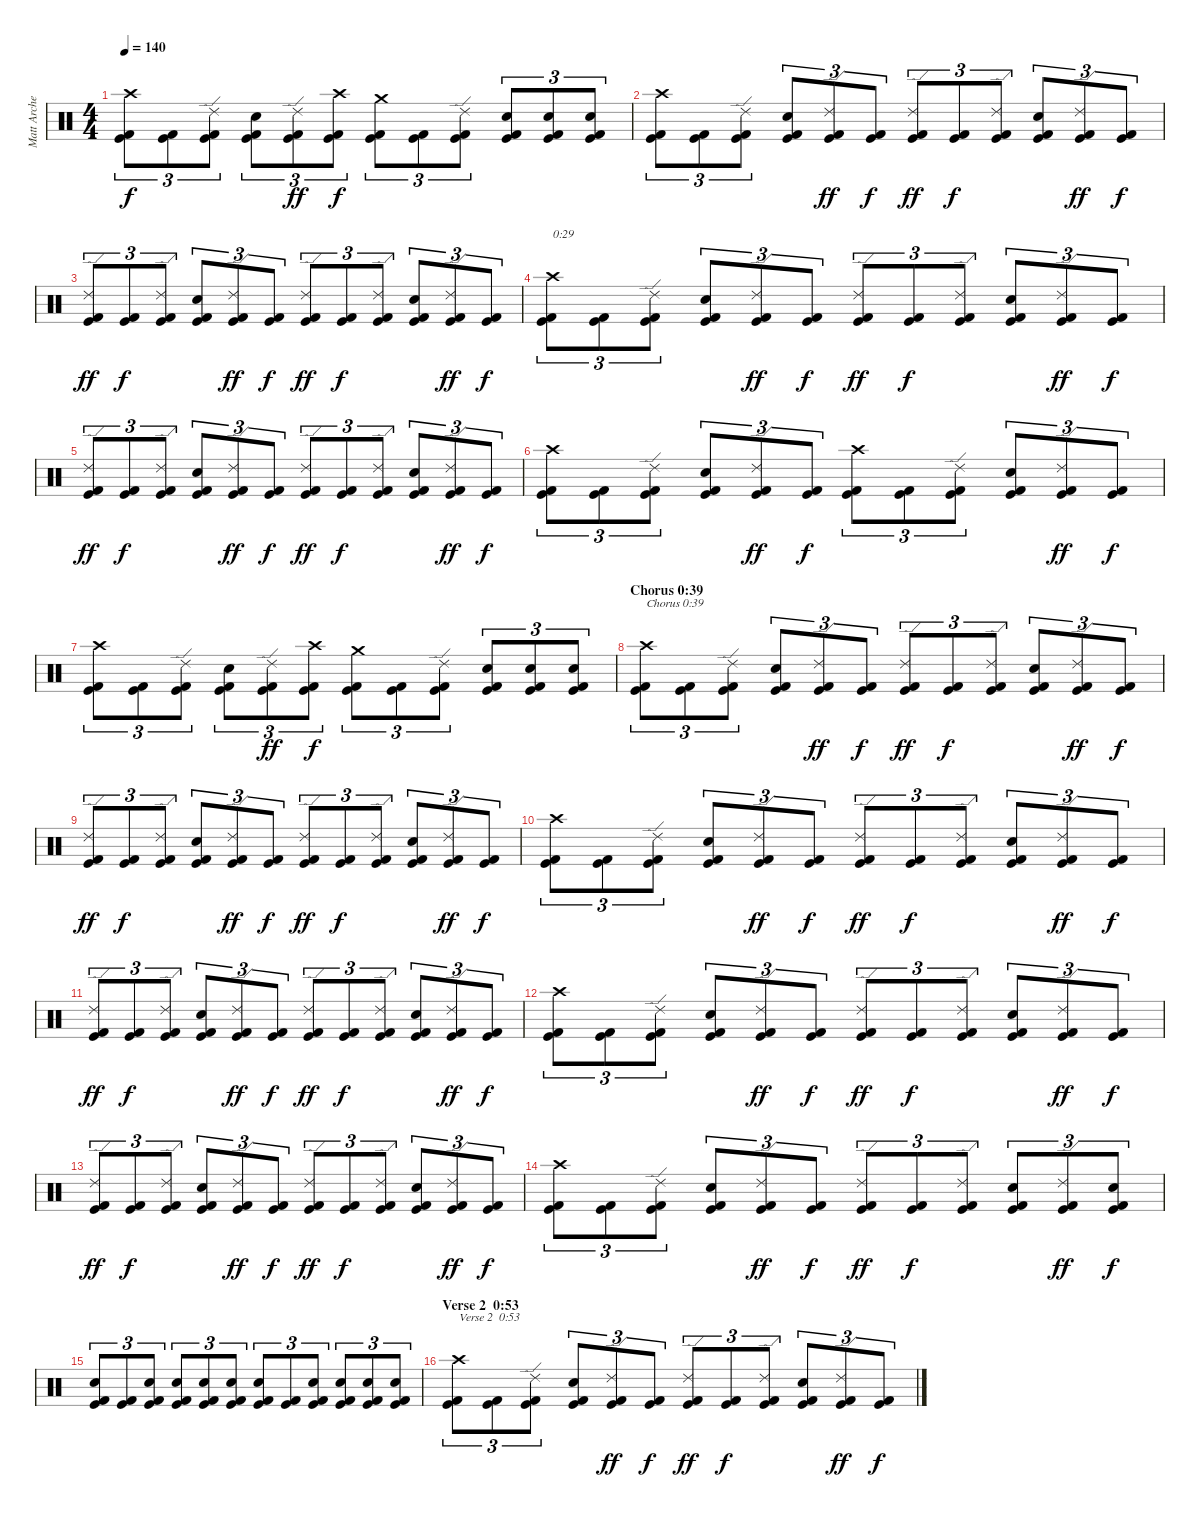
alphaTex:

\track ("Matt Archer" "Matt Arche") {instrument percussion}
\staff {score}
\articulation defaults
\ts (4 4)
\tempo 140
\clef neutral
\ks c
("Kick (hit)" "Kick (hit) 2" "Crash high (hit)").8{tu (3 2) dy f} ("Kick (hit)" "Kick (hit) 2").8{tu (3 2)} ("Kick (hit)" "Kick (hit) 2" "Ride (edge) 2").8{tu (3 2)} ("Kick (hit)" "Kick (hit) 2" "Electric Snare (hit)").8{tu (3 2)} ("Kick (hit)" "Kick (hit) 2" "Ride (edge) 2").8{tu (3 2) dy ff} ("Kick (hit)" "Kick (hit) 2" "Crash high (hit)").8{tu (3 2) dy f} ("Kick (hit)" "Kick (hit) 2" "Crash medium (hit)").8{tu (3 2)} ("Kick (hit)" "Kick (hit) 2").8{tu (3 2)} ("Kick (hit)" "Kick (hit) 2" "Ride (edge) 2").8{tu (3 2)} ("Kick (hit)" "Kick (hit) 2" "Electric Snare (hit)").8{tu (3 2)} ("Kick (hit)" "Kick (hit) 2" "Electric Snare (hit)").8{tu (3 2)} ("Kick (hit)" "Kick (hit) 2" "Electric Snare (hit)").8{tu (3 2)} |
("Kick (hit)" "Kick (hit) 2" "Crash high (hit)").8{tu (3 2)} ("Kick (hit)" "Kick (hit) 2").8{tu (3 2)} ("Kick (hit)" "Kick (hit) 2" "Ride (edge) 2").8{tu (3 2)} ("Kick (hit)" "Kick (hit) 2" "Electric Snare (hit)").8{tu (3 2)} ("Kick (hit)" "Kick (hit) 2" "Ride (edge) 2").8{tu (3 2) dy ff} ("Kick (hit)" "Kick (hit) 2").8{tu (3 2) dy f} ("Kick (hit)" "Kick (hit) 2" "Ride (edge) 2").8{tu (3 2) dy ff} ("Kick (hit)" "Kick (hit) 2").8{tu (3 2) dy f} ("Kick (hit)" "Kick (hit) 2" "Ride (edge) 2").8{tu (3 2)} ("Kick (hit)" "Kick (hit) 2" "Electric Snare (hit)").8{tu (3 2)} ("Kick (hit)" "Kick (hit) 2" "Ride (edge) 2").8{tu (3 2) dy ff} ("Kick (hit)" "Kick (hit) 2").8{tu (3 2) dy f} |
("Kick (hit)" "Kick (hit) 2" "Ride (edge) 2").8{tu (3 2) dy ff} ("Kick (hit)" "Kick (hit) 2").8{tu (3 2) dy f} ("Kick (hit)" "Kick (hit) 2" "Ride (edge) 2").8{tu (3 2)} ("Kick (hit)" "Kick (hit) 2" "Electric Snare (hit)").8{tu (3 2)} ("Kick (hit)" "Kick (hit) 2" "Ride (edge) 2").8{tu (3 2) dy ff} ("Kick (hit)" "Kick (hit) 2").8{tu (3 2) dy f} ("Kick (hit)" "Kick (hit) 2" "Ride (edge) 2").8{tu (3 2) dy ff} ("Kick (hit)" "Kick (hit) 2").8{tu (3 2) dy f} ("Kick (hit)" "Kick (hit) 2" "Ride (edge) 2").8{tu (3 2)} ("Kick (hit)" "Kick (hit) 2" "Electric Snare (hit)").8{tu (3 2)} ("Kick (hit)" "Kick (hit) 2" "Ride (edge) 2").8{tu (3 2) dy ff} ("Kick (hit)" "Kick (hit) 2").8{tu (3 2) dy f} |
("Kick (hit)" "Kick (hit) 2" "Crash high (hit)").8{tu (3 2) txt "0:29"} ("Kick (hit)" "Kick (hit) 2").8{tu (3 2)} ("Kick (hit)" "Kick (hit) 2" "Ride (edge) 2").8{tu (3 2)} ("Kick (hit)" "Kick (hit) 2" "Electric Snare (hit)").8{tu (3 2)} ("Kick (hit)" "Kick (hit) 2" "Ride (edge) 2").8{tu (3 2) dy ff} ("Kick (hit)" "Kick (hit) 2").8{tu (3 2) dy f} ("Kick (hit)" "Kick (hit) 2" "Ride (edge) 2").8{tu (3 2) dy ff} ("Kick (hit)" "Kick (hit) 2").8{tu (3 2) dy f} ("Kick (hit)" "Kick (hit) 2" "Ride (edge) 2").8{tu (3 2)} ("Kick (hit)" "Kick (hit) 2" "Electric Snare (hit)").8{tu (3 2)} ("Kick (hit)" "Kick (hit) 2" "Ride (edge) 2").8{tu (3 2) dy ff} ("Kick (hit)" "Kick (hit) 2").8{tu (3 2) dy f} |
("Kick (hit)" "Kick (hit) 2" "Ride (edge) 2").8{tu (3 2) dy ff} ("Kick (hit)" "Kick (hit) 2").8{tu (3 2) dy f} ("Kick (hit)" "Kick (hit) 2" "Ride (edge) 2").8{tu (3 2)} ("Kick (hit)" "Kick (hit) 2" "Electric Snare (hit)").8{tu (3 2)} ("Kick (hit)" "Kick (hit) 2" "Ride (edge) 2").8{tu (3 2) dy ff} ("Kick (hit)" "Kick (hit) 2").8{tu (3 2) dy f} ("Kick (hit)" "Kick (hit) 2" "Ride (edge) 2").8{tu (3 2) dy ff} ("Kick (hit)" "Kick (hit) 2").8{tu (3 2) dy f} ("Kick (hit)" "Kick (hit) 2" "Ride (edge) 2").8{tu (3 2)} ("Kick (hit)" "Kick (hit) 2" "Electric Snare (hit)").8{tu (3 2)} ("Kick (hit)" "Kick (hit) 2" "Ride (edge) 2").8{tu (3 2) dy ff} ("Kick (hit)" "Kick (hit) 2").8{tu (3 2) dy f} |
("Kick (hit)" "Kick (hit) 2" "Crash high (hit)").8{tu (3 2)} ("Kick (hit)" "Kick (hit) 2").8{tu (3 2)} ("Kick (hit)" "Kick (hit) 2" "Ride (edge) 2").8{tu (3 2)} ("Kick (hit)" "Kick (hit) 2" "Electric Snare (hit)").8{tu (3 2)} ("Kick (hit)" "Kick (hit) 2" "Ride (edge) 2").8{tu (3 2) dy ff} ("Kick (hit)" "Kick (hit) 2").8{tu (3 2) dy f} ("Kick (hit)" "Kick (hit) 2" "Crash high (hit)").8{tu (3 2)} ("Kick (hit)" "Kick (hit) 2").8{tu (3 2)} ("Kick (hit)" "Kick (hit) 2" "Ride (edge) 2").8{tu (3 2)} ("Kick (hit)" "Kick (hit) 2" "Electric Snare (hit)").8{tu (3 2)} ("Kick (hit)" "Kick (hit) 2" "Ride (edge) 2").8{tu (3 2) dy ff} ("Kick (hit)" "Kick (hit) 2").8{tu (3 2) dy f} |
("Kick (hit)" "Kick (hit) 2" "Crash high (hit)").8{tu (3 2)} ("Kick (hit)" "Kick (hit) 2").8{tu (3 2)} ("Kick (hit)" "Kick (hit) 2" "Ride (edge) 2").8{tu (3 2)} ("Kick (hit)" "Kick (hit) 2" "Electric Snare (hit)").8{tu (3 2)} ("Kick (hit)" "Kick (hit) 2" "Ride (edge) 2").8{tu (3 2) dy ff} ("Kick (hit)" "Kick (hit) 2" "Crash high (hit)").8{tu (3 2) dy f} ("Kick (hit)" "Kick (hit) 2" "Crash medium (hit)").8{tu (3 2)} ("Kick (hit)" "Kick (hit) 2").8{tu (3 2)} ("Kick (hit)" "Kick (hit) 2" "Ride (edge) 2").8{tu (3 2)} ("Kick (hit)" "Kick (hit) 2" "Electric Snare (hit)").8{tu (3 2)} ("Kick (hit)" "Kick (hit) 2" "Electric Snare (hit)").8{tu (3 2)} ("Kick (hit)" "Kick (hit) 2" "Electric Snare (hit)").8{tu (3 2)} |
\section ("" "Chorus 0:39")
("Kick (hit)" "Kick (hit) 2" "Crash high (hit)").8{tu (3 2) txt "Chorus 0:39"} ("Kick (hit)" "Kick (hit) 2").8{tu (3 2)} ("Kick (hit)" "Kick (hit) 2" "Ride (edge) 2").8{tu (3 2)} ("Kick (hit)" "Kick (hit) 2" "Electric Snare (hit)").8{tu (3 2)} ("Kick (hit)" "Kick (hit) 2" "Ride (edge) 2").8{tu (3 2) dy ff} ("Kick (hit)" "Kick (hit) 2").8{tu (3 2) dy f} ("Kick (hit)" "Kick (hit) 2" "Ride (edge) 2").8{tu (3 2) dy ff} ("Kick (hit)" "Kick (hit) 2").8{tu (3 2) dy f} ("Kick (hit)" "Kick (hit) 2" "Ride (edge) 2").8{tu (3 2)} ("Kick (hit)" "Kick (hit) 2" "Electric Snare (hit)").8{tu (3 2)} ("Kick (hit)" "Kick (hit) 2" "Ride (edge) 2").8{tu (3 2) dy ff} ("Kick (hit)" "Kick (hit) 2").8{tu (3 2) dy f} |
("Kick (hit)" "Kick (hit) 2" "Ride (edge) 2").8{tu (3 2) dy ff} ("Kick (hit)" "Kick (hit) 2").8{tu (3 2) dy f} ("Kick (hit)" "Kick (hit) 2" "Ride (edge) 2").8{tu (3 2)} ("Kick (hit)" "Kick (hit) 2" "Electric Snare (hit)").8{tu (3 2)} ("Kick (hit)" "Kick (hit) 2" "Ride (edge) 2").8{tu (3 2) dy ff} ("Kick (hit)" "Kick (hit) 2").8{tu (3 2) dy f} ("Kick (hit)" "Kick (hit) 2" "Ride (edge) 2").8{tu (3 2) dy ff} ("Kick (hit)" "Kick (hit) 2").8{tu (3 2) dy f} ("Kick (hit)" "Kick (hit) 2" "Ride (edge) 2").8{tu (3 2)} ("Kick (hit)" "Kick (hit) 2" "Electric Snare (hit)").8{tu (3 2)} ("Kick (hit)" "Kick (hit) 2" "Ride (edge) 2").8{tu (3 2) dy ff} ("Kick (hit)" "Kick (hit) 2").8{tu (3 2) dy f} |
("Kick (hit)" "Kick (hit) 2" "Crash high (hit)").8{tu (3 2)} ("Kick (hit)" "Kick (hit) 2").8{tu (3 2)} ("Kick (hit)" "Kick (hit) 2" "Ride (edge) 2").8{tu (3 2)} ("Kick (hit)" "Kick (hit) 2" "Electric Snare (hit)").8{tu (3 2)} ("Kick (hit)" "Kick (hit) 2" "Ride (edge) 2").8{tu (3 2) dy ff} ("Kick (hit)" "Kick (hit) 2").8{tu (3 2) dy f} ("Kick (hit)" "Kick (hit) 2" "Ride (edge) 2").8{tu (3 2) dy ff} ("Kick (hit)" "Kick (hit) 2").8{tu (3 2) dy f} ("Kick (hit)" "Kick (hit) 2" "Ride (edge) 2").8{tu (3 2)} ("Kick (hit)" "Kick (hit) 2" "Electric Snare (hit)").8{tu (3 2)} ("Kick (hit)" "Kick (hit) 2" "Ride (edge) 2").8{tu (3 2) dy ff} ("Kick (hit)" "Kick (hit) 2").8{tu (3 2) dy f} |
("Kick (hit)" "Kick (hit) 2" "Ride (edge) 2").8{tu (3 2) dy ff} ("Kick (hit)" "Kick (hit) 2").8{tu (3 2) dy f} ("Kick (hit)" "Kick (hit) 2" "Ride (edge) 2").8{tu (3 2)} ("Kick (hit)" "Kick (hit) 2" "Electric Snare (hit)").8{tu (3 2)} ("Kick (hit)" "Kick (hit) 2" "Ride (edge) 2").8{tu (3 2) dy ff} ("Kick (hit)" "Kick (hit) 2").8{tu (3 2) dy f} ("Kick (hit)" "Kick (hit) 2" "Ride (edge) 2").8{tu (3 2) dy ff} ("Kick (hit)" "Kick (hit) 2").8{tu (3 2) dy f} ("Kick (hit)" "Kick (hit) 2" "Ride (edge) 2").8{tu (3 2)} ("Kick (hit)" "Kick (hit) 2" "Electric Snare (hit)").8{tu (3 2)} ("Kick (hit)" "Kick (hit) 2" "Ride (edge) 2").8{tu (3 2) dy ff} ("Kick (hit)" "Kick (hit) 2").8{tu (3 2) dy f} |
("Kick (hit)" "Kick (hit) 2" "Crash high (hit)").8{tu (3 2)} ("Kick (hit)" "Kick (hit) 2").8{tu (3 2)} ("Kick (hit)" "Kick (hit) 2" "Ride (edge) 2").8{tu (3 2)} ("Kick (hit)" "Kick (hit) 2" "Electric Snare (hit)").8{tu (3 2)} ("Kick (hit)" "Kick (hit) 2" "Ride (edge) 2").8{tu (3 2) dy ff} ("Kick (hit)" "Kick (hit) 2").8{tu (3 2) dy f} ("Kick (hit)" "Kick (hit) 2" "Ride (edge) 2").8{tu (3 2) dy ff} ("Kick (hit)" "Kick (hit) 2").8{tu (3 2) dy f} ("Kick (hit)" "Kick (hit) 2" "Ride (edge) 2").8{tu (3 2)} ("Kick (hit)" "Kick (hit) 2" "Electric Snare (hit)").8{tu (3 2)} ("Kick (hit)" "Kick (hit) 2" "Ride (edge) 2").8{tu (3 2) dy ff} ("Kick (hit)" "Kick (hit) 2").8{tu (3 2) dy f} |
("Kick (hit)" "Kick (hit) 2" "Ride (edge) 2").8{tu (3 2) dy ff} ("Kick (hit)" "Kick (hit) 2").8{tu (3 2) dy f} ("Kick (hit)" "Kick (hit) 2" "Ride (edge) 2").8{tu (3 2)} ("Kick (hit)" "Kick (hit) 2" "Electric Snare (hit)").8{tu (3 2)} ("Kick (hit)" "Kick (hit) 2" "Ride (edge) 2").8{tu (3 2) dy ff} ("Kick (hit)" "Kick (hit) 2").8{tu (3 2) dy f} ("Kick (hit)" "Kick (hit) 2" "Ride (edge) 2").8{tu (3 2) dy ff} ("Kick (hit)" "Kick (hit) 2").8{tu (3 2) dy f} ("Kick (hit)" "Kick (hit) 2" "Ride (edge) 2").8{tu (3 2)} ("Kick (hit)" "Kick (hit) 2" "Electric Snare (hit)").8{tu (3 2)} ("Kick (hit)" "Kick (hit) 2" "Ride (edge) 2").8{tu (3 2) dy ff} ("Kick (hit)" "Kick (hit) 2").8{tu (3 2) dy f} |
("Kick (hit)" "Kick (hit) 2" "Crash high (hit)").8{tu (3 2)} ("Kick (hit)" "Kick (hit) 2").8{tu (3 2)} ("Kick (hit)" "Kick (hit) 2" "Ride (edge) 2").8{tu (3 2)} ("Kick (hit)" "Kick (hit) 2" "Electric Snare (hit)").8{tu (3 2)} ("Kick (hit)" "Kick (hit) 2" "Ride (edge) 2").8{tu (3 2) dy ff} ("Kick (hit)" "Kick (hit) 2").8{tu (3 2) dy f} ("Kick (hit)" "Kick (hit) 2" "Ride (edge) 2").8{tu (3 2) dy ff} ("Kick (hit)" "Kick (hit) 2").8{tu (3 2) dy f} ("Kick (hit)" "Kick (hit) 2" "Ride (edge) 2").8{tu (3 2)} ("Kick (hit)" "Kick (hit) 2" "Electric Snare (hit)").8{tu (3 2)} ("Kick (hit)" "Kick (hit) 2" "Ride (edge) 2").8{tu (3 2) dy ff} ("Kick (hit)" "Kick (hit) 2" "Electric Snare (hit)").8{tu (3 2) dy f} |
("Kick (hit)" "Kick (hit) 2" "Electric Snare (hit)").8{tu (3 2)} ("Kick (hit)" "Kick (hit) 2").8{tu (3 2)} ("Kick (hit)" "Kick (hit) 2" "Electric Snare (hit)").8{tu (3 2)} ("Kick (hit)" "Kick (hit) 2" "Electric Snare (hit)").8{tu (3 2)} ("Kick (hit)" "Kick (hit) 2" "Electric Snare (hit)").8{tu (3 2)} ("Kick (hit)" "Kick (hit) 2" "Electric Snare (hit)").8{tu (3 2)} ("Kick (hit)" "Kick (hit) 2" "Electric Snare (hit)").8{tu (3 2)} ("Kick (hit)" "Kick (hit) 2").8{tu (3 2)} ("Kick (hit)" "Kick (hit) 2" "Electric Snare (hit)").8{tu (3 2)} ("Kick (hit)" "Kick (hit) 2" "Electric Snare (hit)").8{tu (3 2)} ("Kick (hit)" "Kick (hit) 2" "Electric Snare (hit)").8{tu (3 2)} ("Kick (hit)" "Kick (hit) 2" "Electric Snare (hit)").8{tu (3 2)} |
\section ("" "Verse 2  0:53")
("Kick (hit)" "Kick (hit) 2" "Crash high (hit)").8{tu (3 2) txt "Verse 2  0:53"} ("Kick (hit)" "Kick (hit) 2").8{tu (3 2)} ("Kick (hit)" "Kick (hit) 2" "Ride (edge) 2").8{tu (3 2)} ("Kick (hit)" "Kick (hit) 2" "Electric Snare (hit)").8{tu (3 2)} ("Kick (hit)" "Kick (hit) 2" "Ride (edge) 2").8{tu (3 2) dy ff} ("Kick (hit)" "Kick (hit) 2").8{tu (3 2) dy f} ("Kick (hit)" "Kick (hit) 2" "Ride (edge) 2").8{tu (3 2) dy ff} ("Kick (hit)" "Kick (hit) 2").8{tu (3 2) dy f} ("Kick (hit)" "Kick (hit) 2" "Ride (edge) 2").8{tu (3 2)} ("Kick (hit)" "Kick (hit) 2" "Electric Snare (hit)").8{tu (3 2)} ("Kick (hit)" "Kick (hit) 2" "Ride (edge) 2").8{tu (3 2) dy ff} ("Kick (hit)" "Kick (hit) 2").8{tu (3 2) dy f}
